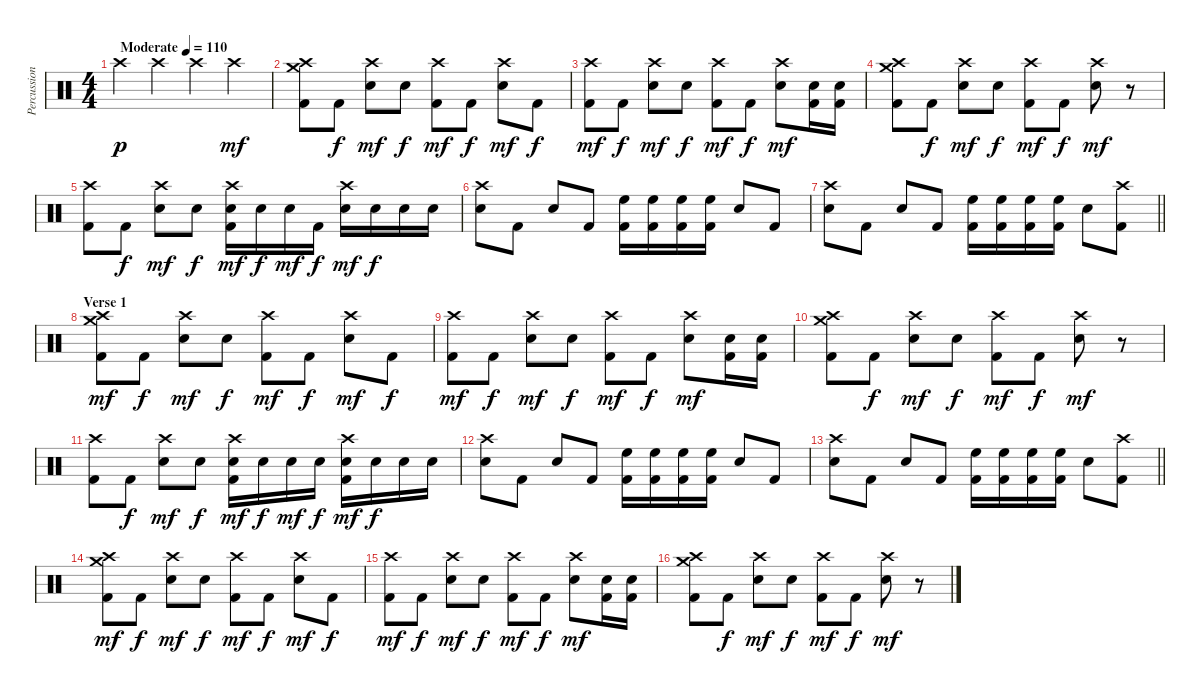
\track ("Percussion" "Percussion") {instrument percussion}
\staff {score}
\articulation defaults
\ts (4 4)
\tempo (110 "Moderate")
\clef neutral
\ks c "Crash high (hit)".4{dy p} "Crash high (hit)".4 "Crash high (hit)".4 "Crash high (hit)".4{dy mf}
|
("Kick (hit) 2" "Crash high (hit)" "Crash medium (hit)").8 "Kick (hit) 2".8{dy f} ("Electric Snare (hit)" "Crash high (hit)").8{dy mf} "Electric Snare (hit)".8{dy f} ("Kick (hit) 2" "Crash high (hit)").8{dy mf} "Kick (hit) 2".8{dy f} ("Electric Snare (hit)" "Crash high (hit)").8{dy mf} "Kick (hit) 2".8{dy f} |
("Kick (hit) 2" "Crash high (hit)").8{dy mf} "Kick (hit) 2".8{dy f} ("Electric Snare (hit)" "Crash high (hit)").8{dy mf} "Electric Snare (hit)".8{dy f} ("Kick (hit) 2" "Crash high (hit)").8{dy mf} "Kick (hit) 2".8{dy f} ("Electric Snare (hit)" "Crash high (hit)").8{dy mf} ("Kick (hit) 2" "Electric Snare (hit)").16 ("Kick (hit) 2" "Electric Snare (hit)").16 |
("Kick (hit) 2" "Crash high (hit)" "Crash medium (hit)").8 "Kick (hit) 2".8{dy f} ("Electric Snare (hit)" "Crash high (hit)").8{dy mf} "Electric Snare (hit)".8{dy f} ("Kick (hit) 2" "Crash high (hit)").8{dy mf} "Kick (hit) 2".8{dy f} ("Electric Snare (hit)" "Crash high (hit)").8{dy mf} r.8 |
("Kick (hit) 2" "Crash high (hit)").8 "Kick (hit) 2".8{dy f} ("Electric Snare (hit)" "Crash high (hit)").8{dy mf} "Electric Snare (hit)".8{dy f} ("Kick (hit) 2" "Electric Snare (hit)" "Crash high (hit)").16{dy mf} "Electric Snare (hit)".16{dy f} "Electric Snare (hit)".16{dy mf} "Kick (hit) 2".16{dy f} ("Electric Snare (hit)" "Crash high (hit)").16{dy mf} "Electric Snare (hit)".16{dy f} "Electric Snare (hit)".16 "Electric Snare (hit)".16 |
("Electric Snare (hit)" "Crash high (hit)").8 "Kick (hit) 2".8 "Electric Snare (hit)".8 "Kick (hit) 2".8 ("Kick (hit) 2" "High Floor Tom (hit)").16 ("Kick (hit) 2" "High Floor Tom (hit)").16 ("Kick (hit) 2" "High Floor Tom (hit)").16 ("Kick (hit) 2" "High Floor Tom (hit)").16 "Electric Snare (hit)".8 "Kick (hit) 2".8 |
\barLineRight lightlight
("Electric Snare (hit)" "Crash high (hit)").8 "Kick (hit) 2".8 "Electric Snare (hit)".8 "Kick (hit) 2".8 ("Kick (hit) 2" "High Floor Tom (hit)").16 ("Kick (hit) 2" "High Floor Tom (hit)").16 ("Kick (hit) 2" "High Floor Tom (hit)").16 ("Kick (hit) 2" "High Floor Tom (hit)").16 "Electric Snare (hit)".8 ("Kick (hit) 2" "Crash high (hit)").8 |
\section ("" "Verse 1")
("Kick (hit) 2" "Crash high (hit)" "Crash medium (hit)").8{dy mf} "Kick (hit) 2".8{dy f} ("Electric Snare (hit)" "Crash high (hit)").8{dy mf} "Electric Snare (hit)".8{dy f} ("Kick (hit) 2" "Crash high (hit)").8{dy mf} "Kick (hit) 2".8{dy f} ("Electric Snare (hit)" "Crash high (hit)").8{dy mf} "Kick (hit) 2".8{dy f} |
("Kick (hit) 2" "Crash high (hit)").8{dy mf} "Kick (hit) 2".8{dy f} ("Electric Snare (hit)" "Crash high (hit)").8{dy mf} "Electric Snare (hit)".8{dy f} ("Kick (hit) 2" "Crash high (hit)").8{dy mf} "Kick (hit) 2".8{dy f} ("Electric Snare (hit)" "Crash high (hit)").8{dy mf} ("Kick (hit) 2" "Electric Snare (hit)").16 ("Kick (hit) 2" "Electric Snare (hit)").16 |
("Kick (hit) 2" "Crash high (hit)" "Crash medium (hit)").8 "Kick (hit) 2".8{dy f} ("Electric Snare (hit)" "Crash high (hit)").8{dy mf} "Electric Snare (hit)".8{dy f} ("Kick (hit) 2" "Crash high (hit)").8{dy mf} "Kick (hit) 2".8{dy f} ("Electric Snare (hit)" "Crash high (hit)").8{dy mf} r.8 |
("Kick (hit) 2" "Crash high (hit)").8 "Kick (hit) 2".8{dy f} ("Electric Snare (hit)" "Crash high (hit)").8{dy mf} "Electric Snare (hit)".8{dy f} ("Kick (hit) 2" "Electric Snare (hit)" "Crash high (hit)").16{dy mf} "Electric Snare (hit)".16{dy f} "Electric Snare (hit)".16{dy mf} "Electric Snare (hit)".16{dy f} ("Kick (hit) 2" "Electric Snare (hit)" "Crash high (hit)").16{dy mf} "Electric Snare (hit)".16{dy f} "Electric Snare (hit)".16 "Electric Snare (hit)".16 |
("Electric Snare (hit)" "Crash high (hit)").8 "Kick (hit) 2".8 "Electric Snare (hit)".8 "Kick (hit) 2".8 ("Kick (hit) 2" "High Floor Tom (hit)").16 ("Kick (hit) 2" "High Floor Tom (hit)").16 ("Kick (hit) 2" "High Floor Tom (hit)").16 ("Kick (hit) 2" "High Floor Tom (hit)").16 "Electric Snare (hit)".8 "Kick (hit) 2".8 |
\barLineRight lightlight
("Electric Snare (hit)" "Crash high (hit)").8 "Kick (hit) 2".8 "Electric Snare (hit)".8 "Kick (hit) 2".8 ("Kick (hit) 2" "High Floor Tom (hit)").16 ("Kick (hit) 2" "High Floor Tom (hit)").16 ("Kick (hit) 2" "High Floor Tom (hit)").16 ("Kick (hit) 2" "High Floor Tom (hit)").16 "Electric Snare (hit)".8 ("Kick (hit) 2" "Crash high (hit)").8 |
("Kick (hit) 2" "Crash high (hit)" "Crash medium (hit)").8{dy mf} "Kick (hit) 2".8{dy f} ("Electric Snare (hit)" "Crash high (hit)").8{dy mf} "Electric Snare (hit)".8{dy f} ("Kick (hit) 2" "Crash high (hit)").8{dy mf} "Kick (hit) 2".8{dy f} ("Electric Snare (hit)" "Crash high (hit)").8{dy mf} "Kick (hit) 2".8{dy f} |
("Kick (hit) 2" "Crash high (hit)").8{dy mf} "Kick (hit) 2".8{dy f} ("Electric Snare (hit)" "Crash high (hit)").8{dy mf} "Electric Snare (hit)".8{dy f} ("Kick (hit) 2" "Crash high (hit)").8{dy mf} "Kick (hit) 2".8{dy f} ("Electric Snare (hit)" "Crash high (hit)").8{dy mf} ("Kick (hit) 2" "Electric Snare (hit)").16 ("Kick (hit) 2" "Electric Snare (hit)").16 |
("Kick (hit) 2" "Crash high (hit)" "Crash medium (hit)").8 "Kick (hit) 2".8{dy f} ("Electric Snare (hit)" "Crash high (hit)").8{dy mf} "Electric Snare (hit)".8{dy f} ("Kick (hit) 2" "Crash high (hit)").8{dy mf} "Kick (hit) 2".8{dy f} ("Electric Snare (hit)" "Crash high (hit)").8{dy mf} r.8
